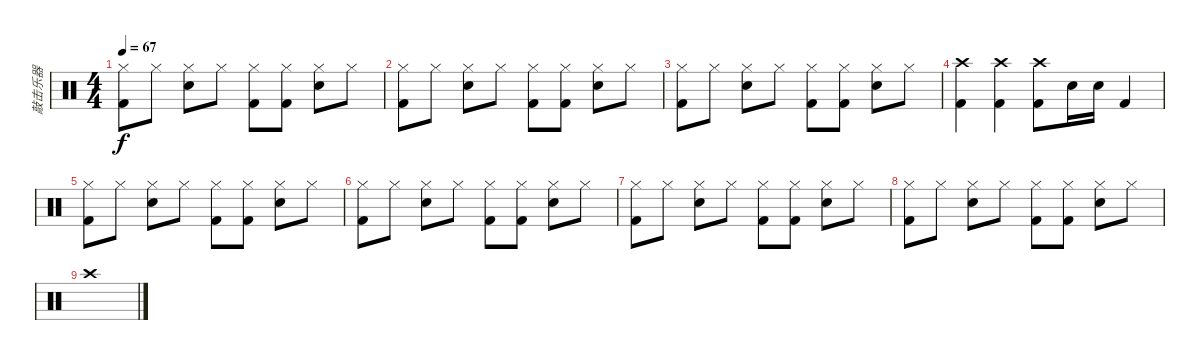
\track ("敲击乐器" "敲击乐器") {instrument percussion}
\staff {score}
\articulation defaults
\ts (4 4)
\tempo 67
\clef neutral
\ks c
("Hi-Hat (closed)" "Kick (hit) 2").8{dy f} "Hi-Hat (closed)".8 ("Hi-Hat (closed)" "Electric Snare (hit)").8 "Hi-Hat (closed)".8 ("Hi-Hat (closed)" "Kick (hit) 2").8 ("Hi-Hat (closed)" "Kick (hit) 2").8 ("Hi-Hat (closed)" "Electric Snare (hit)").8 "Hi-Hat (closed)".8 |
("Hi-Hat (closed)" "Kick (hit) 2").8 "Hi-Hat (closed)".8 ("Hi-Hat (closed)" "Electric Snare (hit)").8 "Hi-Hat (closed)".8 ("Hi-Hat (closed)" "Kick (hit) 2").8 ("Hi-Hat (closed)" "Kick (hit) 2").8 ("Hi-Hat (closed)" "Electric Snare (hit)").8 "Hi-Hat (closed)".8 |
("Hi-Hat (closed)" "Kick (hit) 2").8 "Hi-Hat (closed)".8 ("Hi-Hat (closed)" "Electric Snare (hit)").8 "Hi-Hat (closed)".8 ("Hi-Hat (closed)" "Kick (hit) 2").8 ("Hi-Hat (closed)" "Kick (hit) 2").8 ("Hi-Hat (closed)" "Electric Snare (hit)").8 "Hi-Hat (closed)".8 |
("Crash high (hit)" "Kick (hit) 2").4 ("Crash high (hit)" "Kick (hit) 2").4 ("Crash high (hit)" "Kick (hit) 2").8 "Electric Snare (hit)".16 "Electric Snare (hit)".16 "Kick (hit) 2".4 |
("Hi-Hat (closed)" "Kick (hit) 2").8 "Hi-Hat (closed)".8 ("Hi-Hat (closed)" "Electric Snare (hit)").8 "Hi-Hat (closed)".8 ("Hi-Hat (closed)" "Kick (hit) 2").8 ("Hi-Hat (closed)" "Kick (hit) 2").8 ("Hi-Hat (closed)" "Electric Snare (hit)").8 "Hi-Hat (closed)".8 |
("Hi-Hat (closed)" "Kick (hit) 2").8 "Hi-Hat (closed)".8 ("Hi-Hat (closed)" "Electric Snare (hit)").8 "Hi-Hat (closed)".8 ("Hi-Hat (closed)" "Kick (hit) 2").8 ("Hi-Hat (closed)" "Kick (hit) 2").8 ("Hi-Hat (closed)" "Electric Snare (hit)").8 "Hi-Hat (closed)".8 |
("Hi-Hat (closed)" "Kick (hit) 2").8 "Hi-Hat (closed)".8 ("Hi-Hat (closed)" "Electric Snare (hit)").8 "Hi-Hat (closed)".8 ("Hi-Hat (closed)" "Kick (hit) 2").8 ("Hi-Hat (closed)" "Kick (hit) 2").8 ("Hi-Hat (closed)" "Electric Snare (hit)").8 "Hi-Hat (closed)".8 |
("Hi-Hat (closed)" "Kick (hit) 2").8 "Hi-Hat (closed)".8 ("Hi-Hat (closed)" "Electric Snare (hit)").8 "Hi-Hat (closed)".8 ("Hi-Hat (closed)" "Kick (hit) 2").8 ("Hi-Hat (closed)" "Kick (hit) 2").8 ("Hi-Hat (closed)" "Electric Snare (hit)").8 "Hi-Hat (closed)".8 |
"Crash high (hit)".1
